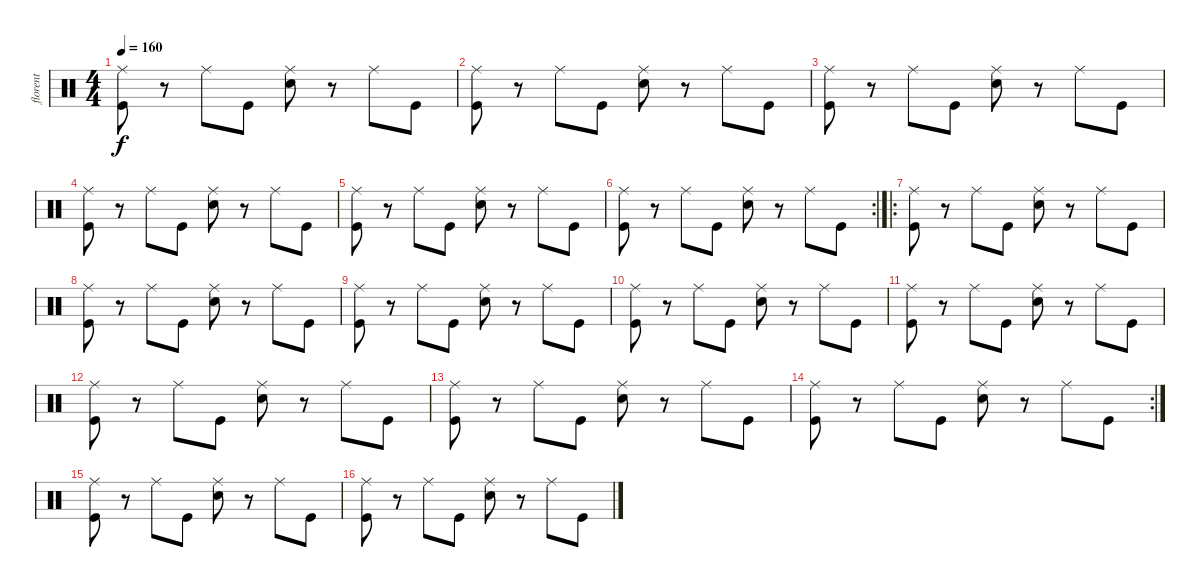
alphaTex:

\track ("florent" "florent") {instrument percussion}
\staff {score}
\articulation defaults
\ts (4 4)
\tempo 160
\clef neutral
\ks c
("Ride (middle)" "Kick (hit)").8{dy f} r.8 "Ride (middle)".8 "Kick (hit)".8 ("Ride (middle)" "Snare (hit) 2").8 r.8 "Ride (middle)".8 "Kick (hit)".8 |
("Ride (middle)" "Kick (hit)").8 r.8 "Ride (middle)".8 "Kick (hit)".8 ("Ride (middle)" "Snare (hit) 2").8 r.8 "Ride (middle)".8 "Kick (hit)".8 |
("Ride (middle)" "Kick (hit)").8 r.8 "Ride (middle)".8 "Kick (hit)".8 ("Ride (middle)" "Snare (hit) 2").8 r.8 "Ride (middle)".8 "Kick (hit)".8 |
("Ride (middle)" "Kick (hit)").8 r.8 "Ride (middle)".8 "Kick (hit)".8 ("Ride (middle)" "Snare (hit) 2").8 r.8 "Ride (middle)".8 "Kick (hit)".8 |
("Ride (middle)" "Kick (hit)").8 r.8 "Ride (middle)".8 "Kick (hit)".8 ("Ride (middle)" "Snare (hit) 2").8 r.8 "Ride (middle)".8 "Kick (hit)".8 |
\rc 2
("Ride (middle)" "Kick (hit)").8 r.8 "Ride (middle)".8 "Kick (hit)".8 ("Ride (middle)" "Snare (hit) 2").8 r.8 "Ride (middle)".8 "Kick (hit)".8 |
\ro
("Ride (middle)" "Kick (hit)").8 r.8 "Ride (middle)".8 "Kick (hit)".8 ("Ride (middle)" "Snare (hit) 2").8 r.8 "Ride (middle)".8 "Kick (hit)".8 |
("Ride (middle)" "Kick (hit)").8 r.8 "Ride (middle)".8 "Kick (hit)".8 ("Ride (middle)" "Snare (hit) 2").8 r.8 "Ride (middle)".8 "Kick (hit)".8 |
("Ride (middle)" "Kick (hit)").8 r.8 "Ride (middle)".8 "Kick (hit)".8 ("Ride (middle)" "Snare (hit) 2").8 r.8 "Ride (middle)".8 "Kick (hit)".8 |
("Ride (middle)" "Kick (hit)").8 r.8 "Ride (middle)".8 "Kick (hit)".8 ("Ride (middle)" "Snare (hit) 2").8 r.8 "Ride (middle)".8 "Kick (hit)".8 |
("Ride (middle)" "Kick (hit)").8 r.8 "Ride (middle)".8 "Kick (hit)".8 ("Ride (middle)" "Snare (hit) 2").8 r.8 "Ride (middle)".8 "Kick (hit)".8 |
("Ride (middle)" "Kick (hit)").8 r.8 "Ride (middle)".8 "Kick (hit)".8 ("Ride (middle)" "Snare (hit) 2").8 r.8 "Ride (middle)".8 "Kick (hit)".8 |
("Ride (middle)" "Kick (hit)").8 r.8 "Ride (middle)".8 "Kick (hit)".8 ("Ride (middle)" "Snare (hit) 2").8 r.8 "Ride (middle)".8 "Kick (hit)".8 |
\rc 2
("Ride (middle)" "Kick (hit)").8 r.8 "Ride (middle)".8 "Kick (hit)".8 ("Ride (middle)" "Snare (hit) 2").8 r.8 "Ride (middle)".8 "Kick (hit)".8 |
("Ride (middle)" "Kick (hit)").8 r.8 "Ride (middle)".8 "Kick (hit)".8 ("Ride (middle)" "Snare (hit) 2").8 r.8 "Ride (middle)".8 "Kick (hit)".8 |
("Ride (middle)" "Kick (hit)").8 r.8 "Ride (middle)".8 "Kick (hit)".8 ("Ride (middle)" "Snare (hit) 2").8 r.8 "Ride (middle)".8 "Kick (hit)".8
